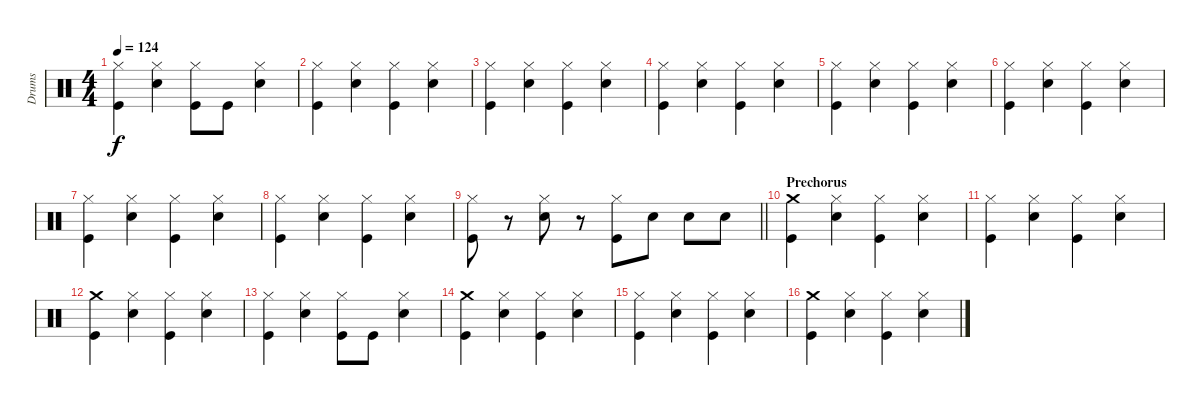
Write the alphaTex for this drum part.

\track ("Drums" "Drums") {instrument percussion}
\staff {score}
\articulation defaults
\ts (4 4)
\tempo 124
\clef neutral
\ks c
("Hi-Hat (closed)" "Kick (hit)").4{dy f} ("Hi-Hat (closed)" "Snare (hit) 2").4 ("Hi-Hat (closed)" "Kick (hit)").8 "Kick (hit)".8 ("Hi-Hat (closed)" "Snare (hit) 2").4 |
("Hi-Hat (closed)" "Kick (hit)").4 ("Hi-Hat (closed)" "Snare (hit) 2").4 ("Hi-Hat (closed)" "Kick (hit)").4 ("Hi-Hat (closed)" "Snare (hit) 2").4 |
("Hi-Hat (closed)" "Kick (hit)").4 ("Hi-Hat (closed)" "Snare (hit) 2").4 ("Hi-Hat (closed)" "Kick (hit)").4 ("Hi-Hat (closed)" "Snare (hit) 2").4 |
("Hi-Hat (closed)" "Kick (hit)").4 ("Hi-Hat (closed)" "Snare (hit) 2").4 ("Hi-Hat (closed)" "Kick (hit)").4 ("Hi-Hat (closed)" "Snare (hit) 2").4 |
("Hi-Hat (closed)" "Kick (hit)").4 ("Hi-Hat (closed)" "Snare (hit) 2").4 ("Hi-Hat (closed)" "Kick (hit)").4 ("Hi-Hat (closed)" "Snare (hit) 2").4 |
("Hi-Hat (closed)" "Kick (hit)").4 ("Hi-Hat (closed)" "Snare (hit) 2").4 ("Hi-Hat (closed)" "Kick (hit)").4 ("Hi-Hat (closed)" "Snare (hit) 2").4 |
("Hi-Hat (closed)" "Kick (hit)").4 ("Hi-Hat (closed)" "Snare (hit) 2").4 ("Hi-Hat (closed)" "Kick (hit)").4 ("Hi-Hat (closed)" "Snare (hit) 2").4 |
("Hi-Hat (closed)" "Kick (hit)").4 ("Hi-Hat (closed)" "Snare (hit) 2").4 ("Hi-Hat (closed)" "Kick (hit)").4 ("Hi-Hat (closed)" "Snare (hit) 2").4 |
\barLineRight lightlight
("Hi-Hat (closed)" "Kick (hit)").8 r.8 ("Hi-Hat (closed)" "Snare (hit) 2").8 r.8 ("Hi-Hat (closed)" "Kick (hit)").8 "Snare (hit) 2".8 "Snare (hit) 2".8 "Snare (hit) 2".8 |
\section ("" "Prechorus")
("Crash medium (hit)" "Kick (hit)").4 ("Hi-Hat (closed)" "Snare (hit) 2").4 ("Hi-Hat (closed)" "Kick (hit)").4 ("Hi-Hat (closed)" "Snare (hit) 2").4 |
("Hi-Hat (closed)" "Kick (hit)").4 ("Hi-Hat (closed)" "Snare (hit) 2").4 ("Hi-Hat (closed)" "Kick (hit)").4 ("Hi-Hat (closed)" "Snare (hit) 2").4 |
("Crash medium (hit)" "Kick (hit)").4 ("Hi-Hat (closed)" "Snare (hit) 2").4 ("Hi-Hat (closed)" "Kick (hit)").4 ("Hi-Hat (closed)" "Snare (hit) 2").4 |
("Hi-Hat (closed)" "Kick (hit)").4 ("Hi-Hat (closed)" "Snare (hit) 2").4 ("Hi-Hat (closed)" "Kick (hit)").8 "Kick (hit)".8 ("Hi-Hat (closed)" "Snare (hit) 2").4 |
("Crash medium (hit)" "Kick (hit)").4 ("Hi-Hat (closed)" "Snare (hit) 2").4 ("Hi-Hat (closed)" "Kick (hit)").4 ("Hi-Hat (closed)" "Snare (hit) 2").4 |
("Hi-Hat (closed)" "Kick (hit)").4 ("Hi-Hat (closed)" "Snare (hit) 2").4 ("Hi-Hat (closed)" "Kick (hit)").4 ("Hi-Hat (closed)" "Snare (hit) 2").4 |
("Crash medium (hit)" "Kick (hit)").4 ("Hi-Hat (closed)" "Snare (hit) 2").4 ("Hi-Hat (closed)" "Kick (hit)").4 ("Hi-Hat (closed)" "Snare (hit) 2").4
